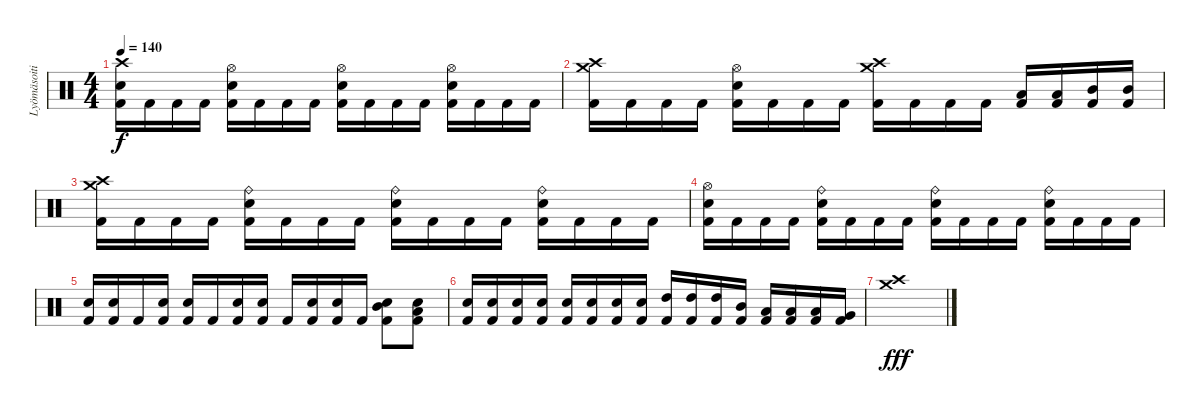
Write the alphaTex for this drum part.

\track ("Lyömäsoitin" "Lyömäsoiti") {instrument percussion}
\staff {score}
\articulation defaults
\ts (4 4)
\tempo 140
\clef neutral
\ks c
("Crash high (hit)" "Snare (hit) 2" "Kick (hit) 2").16{dy f} "Kick (hit) 2".16 "Kick (hit) 2".16 "Kick (hit) 2".16 ("Hi-Hat (open)" "Snare (hit) 2" "Kick (hit) 2").16 "Kick (hit) 2".16 "Kick (hit) 2".16 "Kick (hit) 2".16 ("Hi-Hat (open)" "Snare (hit) 2" "Kick (hit) 2").16 "Kick (hit) 2".16 "Kick (hit) 2".16 "Kick (hit) 2".16 ("Hi-Hat (open)" "Snare (hit) 2" "Kick (hit) 2").16 "Kick (hit) 2".16 "Kick (hit) 2".16 "Kick (hit) 2".16 |
("Crash high (hit)" "Crash medium (hit)" "Kick (hit) 2").16 "Kick (hit) 2".16 "Kick (hit) 2".16 "Kick (hit) 2".16 ("Hi-Hat (open)" "Snare (hit) 2" "Kick (hit) 2").16 "Kick (hit) 2".16 "Kick (hit) 2".16 "Kick (hit) 2".16 ("Crash high (hit)" "Crash medium (hit)" "Kick (hit) 2").16 "Kick (hit) 2".16 "Kick (hit) 2".16 "Kick (hit) 2".16 ("Low Tom (hit)" "Kick (hit) 2").16 ("Low Tom (hit)" "Kick (hit) 2").16 ("Mid Tom (hit)" "Kick (hit) 2").16 ("Mid Tom (hit)" "Kick (hit) 2").16 |
("Crash high (hit)" "Crash medium (hit)" "Kick (hit) 2").16 "Kick (hit) 2".16 "Kick (hit) 2".16 "Kick (hit) 2".16 ("Ride (bell)" "Snare (hit) 2" "Kick (hit) 2").16 "Kick (hit) 2".16 "Kick (hit) 2".16 "Kick (hit) 2".16 ("Ride (bell)" "Snare (hit) 2" "Kick (hit) 2").16 "Kick (hit) 2".16 "Kick (hit) 2".16 "Kick (hit) 2".16 ("Ride (bell)" "Snare (hit) 2" "Kick (hit) 2").16 "Kick (hit) 2".16 "Kick (hit) 2".16 "Kick (hit) 2".16 |
("Hi-Hat (open)" "Snare (hit) 2" "Kick (hit) 2").16 "Kick (hit) 2".16 "Kick (hit) 2".16 "Kick (hit) 2".16 ("Ride (bell)" "Snare (hit) 2" "Kick (hit) 2").16 "Kick (hit) 2".16 "Kick (hit) 2".16 "Kick (hit) 2".16 ("Ride (bell)" "Snare (hit) 2" "Kick (hit) 2").16 "Kick (hit) 2".16 "Kick (hit) 2".16 "Kick (hit) 2".16 ("Ride (bell)" "Snare (hit) 2" "Kick (hit) 2").16 "Kick (hit) 2".16 "Kick (hit) 2".16 "Kick (hit) 2".16 |
("Snare (hit) 2" "Kick (hit) 2").16 ("Snare (hit) 2" "Kick (hit) 2").16 "Kick (hit) 2".16 ("Snare (hit) 2" "Kick (hit) 2").16 ("Snare (hit) 2" "Kick (hit) 2").16 "Kick (hit) 2".16 ("Snare (hit) 2" "Kick (hit) 2").16 ("Snare (hit) 2" "Kick (hit) 2").16 "Kick (hit) 2".16 ("Snare (hit) 2" "Kick (hit) 2").16 ("Snare (hit) 2" "Kick (hit) 2").16 "Kick (hit) 2".16 ("Kick (hit) 2" "Mid Tom (hit)" "Snare (hit) 2").8 ("Kick (hit) 2" "Low Tom (hit)" "Snare (hit) 2").8 |
("Snare (hit) 2" "Kick (hit) 2").16 ("Snare (hit) 2" "Kick (hit) 2").16 ("Snare (hit) 2" "Kick (hit) 2").16 ("Snare (hit) 2" "Kick (hit) 2").16 ("Snare (hit) 2" "Kick (hit) 2").16 ("Snare (hit) 2" "Kick (hit) 2").16 ("Snare (hit) 2" "Kick (hit) 2").16 ("Snare (hit) 2" "Kick (hit) 2").16 ("High Tom (hit)" "Kick (hit) 2").16 ("High Tom (hit)" "Kick (hit) 2").16 ("High Tom (hit)" "Kick (hit) 2").16 ("Mid Tom (hit)" "Kick (hit) 2").16 ("Low Tom (hit)" "Kick (hit) 2").16 ("Low Tom (hit)" "Kick (hit) 2").16 ("Low Tom (hit)" "Kick (hit) 2").16 ("Very Low Tom (hit)" "Kick (hit) 2").16 |
("Crash medium (hit)" "Crash high (hit)").1{dy fff}
